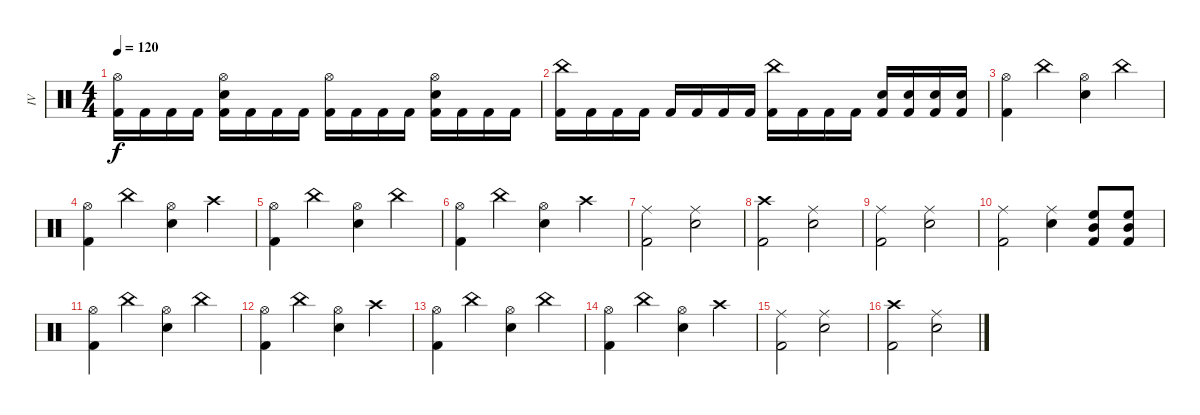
\track ("IV" "IV") {instrument percussion}
\staff {score}
\articulation defaults
\ts (4 4)
\tempo 120
\clef neutral
\ks c
("Hi-Hat (open)" "Kick (hit) 2").16{dy f} "Kick (hit) 2".16 "Kick (hit) 2".16 "Kick (hit) 2".16 ("Hi-Hat (open)" "Snare (hit) 2" "Kick (hit) 2").16 "Kick (hit) 2".16 "Kick (hit) 2".16 "Kick (hit) 2".16 ("Hi-Hat (open)" "Kick (hit) 2").16 "Kick (hit) 2".16 "Kick (hit) 2".16 "Kick (hit) 2".16 ("Hi-Hat (open)" "Snare (hit) 2" "Kick (hit) 2").16 "Kick (hit) 2".16 "Kick (hit) 2".16 "Kick (hit) 2".16 |
("China (hit)" "Kick (hit) 2").16 "Kick (hit) 2".16 "Kick (hit) 2".16 "Kick (hit) 2".16 "Kick (hit) 2".16 "Kick (hit) 2".16 "Kick (hit) 2".16 "Kick (hit) 2".16 ("China (hit)" "Kick (hit) 2").16 "Kick (hit) 2".16 "Kick (hit) 2".16 "Kick (hit) 2".16 ("Snare (hit) 2" "Kick (hit) 2").16 ("Snare (hit) 2" "Kick (hit) 2").16 ("Snare (hit) 2" "Kick (hit) 2").16 ("Snare (hit) 2" "Kick (hit) 2").16 |
("Hi-Hat (open)" "Kick (hit) 2").4 "China (hit)".4 ("Hi-Hat (open)" "Snare (hit) 2").4 "China (hit)".4 |
("Hi-Hat (open)" "Kick (hit) 2").4 "China (hit)".4 ("Hi-Hat (open)" "Snare (hit) 2").4 "Crash high (hit)".4 |
("Hi-Hat (open)" "Kick (hit) 2").4 "China (hit)".4 ("Hi-Hat (open)" "Snare (hit) 2").4 "China (hit)".4 |
("Hi-Hat (open)" "Kick (hit) 2").4 "China (hit)".4 ("Hi-Hat (open)" "Snare (hit) 2").4 "Crash high (hit)".4 |
("Ride (middle)" "Kick (hit) 2").2 ("Ride (middle)" "Snare (hit) 2").2 |
("Crash high (hit)" "Kick (hit) 2").2 ("Ride (middle)" "Snare (hit) 2").2 |
("Ride (middle)" "Kick (hit) 2").2 ("Ride (middle)" "Snare (hit) 2").2 |
("Ride (middle)" "Kick (hit) 2").2 ("Ride (middle)" "Snare (hit) 2").4 ("High Floor Tom (hit)" "Mid Tom (hit)" "Kick (hit) 2").8 ("High Floor Tom (hit)" "Mid Tom (hit)" "Kick (hit) 2").8 |
("Hi-Hat (open)" "Kick (hit) 2").4 "China (hit)".4 ("Hi-Hat (open)" "Snare (hit) 2").4 "China (hit)".4 |
("Hi-Hat (open)" "Kick (hit) 2").4 "China (hit)".4 ("Hi-Hat (open)" "Snare (hit) 2").4 "Crash high (hit)".4 |
("Hi-Hat (open)" "Kick (hit) 2").4 "China (hit)".4 ("Hi-Hat (open)" "Snare (hit) 2").4 "China (hit)".4 |
("Hi-Hat (open)" "Kick (hit) 2").4 "China (hit)".4 ("Hi-Hat (open)" "Snare (hit) 2").4 "Crash high (hit)".4 |
("Ride (middle)" "Kick (hit) 2").2 ("Ride (middle)" "Snare (hit) 2").2 |
("Crash high (hit)" "Kick (hit) 2").2 ("Ride (middle)" "Snare (hit) 2").2
